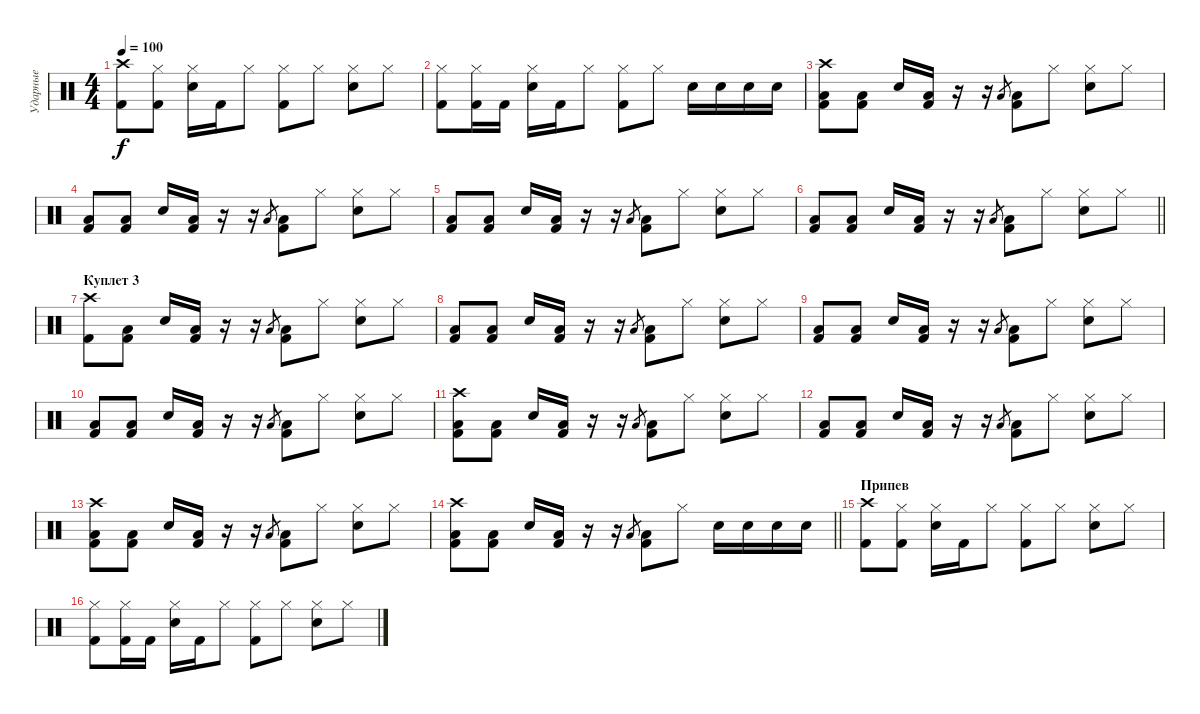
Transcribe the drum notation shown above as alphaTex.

\track ("Ударные" "Ударные") {instrument percussion}
\staff {score}
\articulation defaults
\ts (4 4)
\tempo 100
\clef neutral
\ks c
("Crash high (hit)" "Kick (hit) 2").8{dy f} ("Hi-Hat (closed)" "Kick (hit) 2").8 ("Hi-Hat (closed)" "Snare (hit) 2").16 "Kick (hit) 2".16 "Hi-Hat (closed)".8 ("Hi-Hat (closed)" "Kick (hit) 2").8 "Hi-Hat (closed)".8 ("Hi-Hat (closed)" "Snare (hit) 2").8 "Hi-Hat (closed)".8 |
("Hi-Hat (closed)" "Kick (hit) 2").8 ("Hi-Hat (closed)" "Kick (hit) 2").16 "Kick (hit) 2".16 ("Hi-Hat (closed)" "Snare (hit) 2").16 "Kick (hit) 2".16 "Hi-Hat (closed)".8 ("Hi-Hat (closed)" "Kick (hit) 2").8 "Hi-Hat (closed)".8 "Snare (hit) 2".16 "Snare (hit) 2".16 "Snare (hit) 2".16 "Snare (hit) 2".16 |
("Low Floor Tom (hit)" "Kick (hit) 2" "Crash high (hit)").8 ("Low Floor Tom (hit)" "Kick (hit) 2").8 "Snare (hit) 2".16 ("Low Floor Tom (hit)" "Kick (hit) 2").16 r.16 r.16 "Low Floor Tom (hit)".8{gr} ("Low Floor Tom (hit)" "Kick (hit) 2").8 "Hi-Hat (closed)".8 ("Hi-Hat (closed)" "Snare (hit) 2").8 "Hi-Hat (closed)".8 |
("Low Floor Tom (hit)" "Kick (hit) 2").8 ("Low Floor Tom (hit)" "Kick (hit) 2").8 "Snare (hit) 2".16 ("Low Floor Tom (hit)" "Kick (hit) 2").16 r.16 r.16 "Low Floor Tom (hit)".8{gr} ("Low Floor Tom (hit)" "Kick (hit) 2").8 "Hi-Hat (closed)".8 ("Hi-Hat (closed)" "Snare (hit) 2").8 "Hi-Hat (closed)".8 |
("Low Floor Tom (hit)" "Kick (hit) 2").8 ("Low Floor Tom (hit)" "Kick (hit) 2").8 "Snare (hit) 2".16 ("Low Floor Tom (hit)" "Kick (hit) 2").16 r.16 r.16 "Low Floor Tom (hit)".8{gr} ("Low Floor Tom (hit)" "Kick (hit) 2").8 "Hi-Hat (closed)".8 ("Hi-Hat (closed)" "Snare (hit) 2").8 "Hi-Hat (closed)".8 |
\barLineRight lightlight
("Low Floor Tom (hit)" "Kick (hit) 2").8 ("Low Floor Tom (hit)" "Kick (hit) 2").8 "Snare (hit) 2".16 ("Low Floor Tom (hit)" "Kick (hit) 2").16 r.16 r.16 "Low Floor Tom (hit)".8{gr} ("Low Floor Tom (hit)" "Kick (hit) 2").8 "Hi-Hat (closed)".8 ("Hi-Hat (closed)" "Snare (hit) 2").8 "Hi-Hat (closed)".8 |
\section ("" "Куплет 3")
("Crash high (hit)" "Kick (hit) 2").8 ("Low Floor Tom (hit)" "Kick (hit) 2").8 "Snare (hit) 2".16 ("Low Floor Tom (hit)" "Kick (hit) 2").16 r.16 r.16 "Low Floor Tom (hit)".8{gr} ("Low Floor Tom (hit)" "Kick (hit) 2").8 "Hi-Hat (closed)".8 ("Hi-Hat (closed)" "Snare (hit) 2").8 "Hi-Hat (closed)".8 |
("Low Floor Tom (hit)" "Kick (hit) 2").8 ("Low Floor Tom (hit)" "Kick (hit) 2").8 "Snare (hit) 2".16 ("Low Floor Tom (hit)" "Kick (hit) 2").16 r.16 r.16 "Low Floor Tom (hit)".8{gr} ("Low Floor Tom (hit)" "Kick (hit) 2").8 "Hi-Hat (closed)".8 ("Hi-Hat (closed)" "Snare (hit) 2").8 "Hi-Hat (closed)".8 |
("Low Floor Tom (hit)" "Kick (hit) 2").8 ("Low Floor Tom (hit)" "Kick (hit) 2").8 "Snare (hit) 2".16 ("Low Floor Tom (hit)" "Kick (hit) 2").16 r.16 r.16 "Low Floor Tom (hit)".8{gr} ("Low Floor Tom (hit)" "Kick (hit) 2").8 "Hi-Hat (closed)".8 ("Hi-Hat (closed)" "Snare (hit) 2").8 "Hi-Hat (closed)".8 |
("Low Floor Tom (hit)" "Kick (hit) 2").8 ("Low Floor Tom (hit)" "Kick (hit) 2").8 "Snare (hit) 2".16 ("Low Floor Tom (hit)" "Kick (hit) 2").16 r.16 r.16 "Low Floor Tom (hit)".8{gr} ("Low Floor Tom (hit)" "Kick (hit) 2").8 "Hi-Hat (closed)".8 ("Hi-Hat (closed)" "Snare (hit) 2").8 "Hi-Hat (closed)".8 |
("Low Floor Tom (hit)" "Kick (hit) 2" "Crash high (hit)").8 ("Low Floor Tom (hit)" "Kick (hit) 2").8 "Snare (hit) 2".16 ("Low Floor Tom (hit)" "Kick (hit) 2").16 r.16 r.16 "Low Floor Tom (hit)".8{gr} ("Low Floor Tom (hit)" "Kick (hit) 2").8 "Hi-Hat (closed)".8 ("Hi-Hat (closed)" "Snare (hit) 2").8 "Hi-Hat (closed)".8 |
("Low Floor Tom (hit)" "Kick (hit) 2").8 ("Low Floor Tom (hit)" "Kick (hit) 2").8 "Snare (hit) 2".16 ("Low Floor Tom (hit)" "Kick (hit) 2").16 r.16 r.16 "Low Floor Tom (hit)".8{gr} ("Low Floor Tom (hit)" "Kick (hit) 2").8 "Hi-Hat (closed)".8 ("Hi-Hat (closed)" "Snare (hit) 2").8 "Hi-Hat (closed)".8 |
("Low Floor Tom (hit)" "Kick (hit) 2" "Crash high (hit)").8 ("Low Floor Tom (hit)" "Kick (hit) 2").8 "Snare (hit) 2".16 ("Low Floor Tom (hit)" "Kick (hit) 2").16 r.16 r.16 "Low Floor Tom (hit)".8{gr} ("Low Floor Tom (hit)" "Kick (hit) 2").8 "Hi-Hat (closed)".8 ("Hi-Hat (closed)" "Snare (hit) 2").8 "Hi-Hat (closed)".8 |
\barLineRight lightlight
("Low Floor Tom (hit)" "Kick (hit) 2" "Crash high (hit)").8 ("Low Floor Tom (hit)" "Kick (hit) 2").8 "Snare (hit) 2".16 ("Low Floor Tom (hit)" "Kick (hit) 2").16 r.16 r.16 "Low Floor Tom (hit)".8{gr} ("Low Floor Tom (hit)" "Kick (hit) 2").8 "Hi-Hat (closed)".8 "Snare (hit) 2".16 "Snare (hit) 2".16 "Snare (hit) 2".16 "Snare (hit) 2".16 |
\section ("" "Припев")
("Crash high (hit)" "Kick (hit) 2").8 ("Hi-Hat (closed)" "Kick (hit) 2").8 ("Hi-Hat (closed)" "Snare (hit) 2").16 "Kick (hit) 2".16 "Hi-Hat (closed)".8 ("Hi-Hat (closed)" "Kick (hit) 2").8 "Hi-Hat (closed)".8 ("Hi-Hat (closed)" "Snare (hit) 2").8 "Hi-Hat (closed)".8 |
("Hi-Hat (closed)" "Kick (hit) 2").8 ("Hi-Hat (closed)" "Kick (hit) 2").16 "Kick (hit) 2".16 ("Hi-Hat (closed)" "Snare (hit) 2").16 "Kick (hit) 2".16 "Hi-Hat (closed)".8 ("Hi-Hat (closed)" "Kick (hit) 2").8 "Hi-Hat (closed)".8 ("Hi-Hat (closed)" "Snare (hit) 2").8 "Hi-Hat (closed)".8
